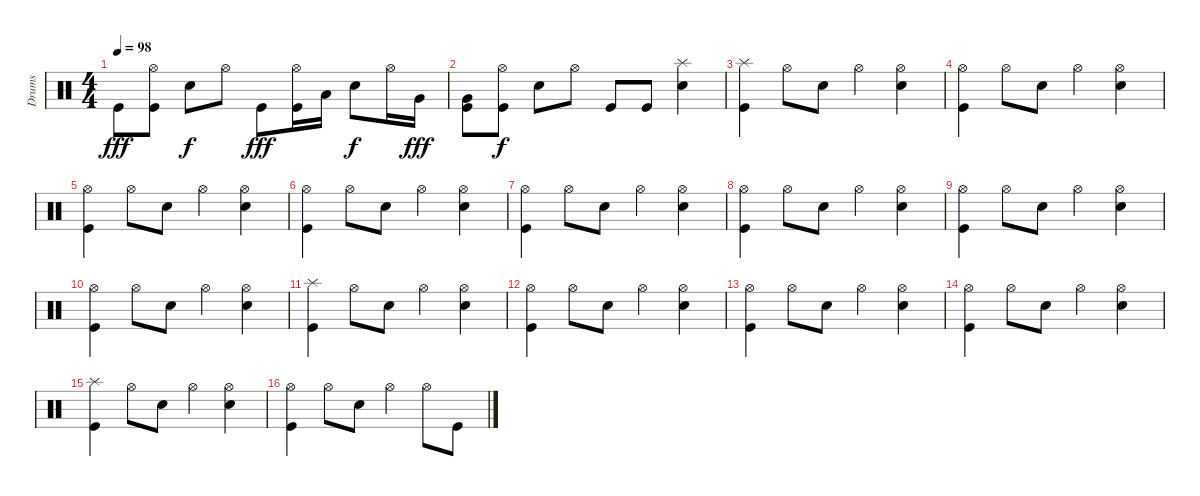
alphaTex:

\track ("Drums" "Drums") {instrument percussion}
\staff {score}
\articulation defaults
\ts (4 4)
\tempo 98
\clef neutral
\ks c "Kick (hit)".8{dy fff}
("Hi-Hat (open)" "Kick (hit)").8 "Snare (hit) 2".8{dy f} "Hi-Hat (open)".8 "Kick (hit)".8{dy fff} ("Hi-Hat (open)" "Kick (hit)").16 "Low Tom (hit)".16 "Snare (hit) 2".8{dy f} "Hi-Hat (open)".16 "Very Low Tom (hit)".16{dy fff} |
("Very Low Tom (hit)" "Kick (hit)").8 ("Hi-Hat (open)" "Kick (hit)").8{dy f} "Snare (hit) 2".8 "Hi-Hat (open)".8 "Kick (hit)".8 "Kick (hit)".8 ("Splash (hit)" "Snare (hit) 2").4 |
("Splash (hit)" "Kick (hit)").4 "Hi-Hat (open)".8 "Snare (hit) 2".8 "Hi-Hat (open)".4 ("Hi-Hat (open)" "Snare (hit) 2").4 |
("Hi-Hat (open)" "Kick (hit)").4 "Hi-Hat (open)".8 "Snare (hit) 2".8 "Hi-Hat (open)".4 ("Hi-Hat (open)" "Snare (hit) 2").4 |
("Hi-Hat (open)" "Kick (hit)").4 "Hi-Hat (open)".8 "Snare (hit) 2".8 "Hi-Hat (open)".4 ("Hi-Hat (open)" "Snare (hit) 2").4 |
("Hi-Hat (open)" "Kick (hit)").4 "Hi-Hat (open)".8 "Snare (hit) 2".8 "Hi-Hat (open)".4 ("Hi-Hat (open)" "Snare (hit) 2").4 |
("Hi-Hat (open)" "Kick (hit)").4 "Hi-Hat (open)".8 "Snare (hit) 2".8 "Hi-Hat (open)".4 ("Hi-Hat (open)" "Snare (hit) 2").4 |
("Hi-Hat (open)" "Kick (hit)").4 "Hi-Hat (open)".8 "Snare (hit) 2".8 "Hi-Hat (open)".4 ("Hi-Hat (open)" "Snare (hit) 2").4 |
("Hi-Hat (open)" "Kick (hit)").4 "Hi-Hat (open)".8 "Snare (hit) 2".8 "Hi-Hat (open)".4 ("Hi-Hat (open)" "Snare (hit) 2").4 |
("Hi-Hat (open)" "Kick (hit)").4 "Hi-Hat (open)".8 "Snare (hit) 2".8 "Hi-Hat (open)".4 ("Hi-Hat (open)" "Snare (hit) 2").4 |
("Splash (hit)" "Kick (hit)").4 "Hi-Hat (open)".8 "Snare (hit) 2".8 "Hi-Hat (open)".4 ("Hi-Hat (open)" "Snare (hit) 2").4 |
("Hi-Hat (open)" "Kick (hit)").4 "Hi-Hat (open)".8 "Snare (hit) 2".8 "Hi-Hat (open)".4 ("Hi-Hat (open)" "Snare (hit) 2").4 |
("Hi-Hat (open)" "Kick (hit)").4 "Hi-Hat (open)".8 "Snare (hit) 2".8 "Hi-Hat (open)".4 ("Hi-Hat (open)" "Snare (hit) 2").4 |
("Hi-Hat (open)" "Kick (hit)").4 "Hi-Hat (open)".8 "Snare (hit) 2".8 "Hi-Hat (open)".4 ("Hi-Hat (open)" "Snare (hit) 2").4 |
("Splash (hit)" "Kick (hit)").4 "Hi-Hat (open)".8 "Snare (hit) 2".8 "Hi-Hat (open)".4 ("Hi-Hat (open)" "Snare (hit) 2").4 |
("Hi-Hat (open)" "Kick (hit)").4 "Hi-Hat (open)".8 "Snare (hit) 2".8 "Hi-Hat (open)".4 "Hi-Hat (open)".8 "Kick (hit)".8
